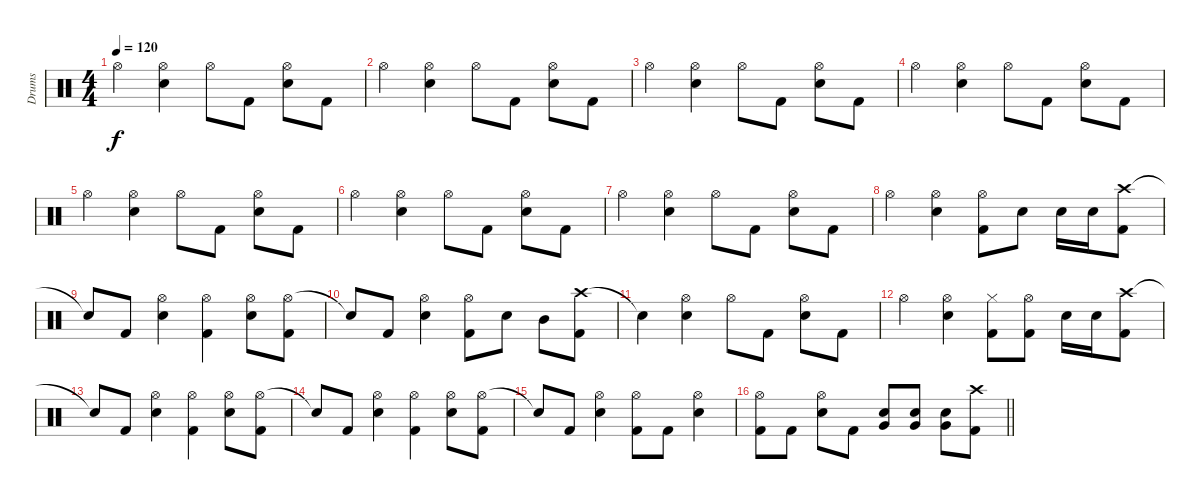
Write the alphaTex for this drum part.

\track ("Drums" "Drums") {instrument percussion}
\staff {score}
\articulation defaults
\ts (4 4)
\tempo 120
\clef neutral
\ks c "Hi-Hat (open)".4{dy f}
("Hi-Hat (open)" "Snare (hit) 2").4 "Hi-Hat (open)".8 "Kick (hit) 2".8 ("Hi-Hat (open)" "Snare (hit) 2").8 "Kick (hit) 2".8 |
"Hi-Hat (open)".4 ("Hi-Hat (open)" "Snare (hit) 2").4 "Hi-Hat (open)".8 "Kick (hit) 2".8 ("Hi-Hat (open)" "Snare (hit) 2").8 "Kick (hit) 2".8 |
"Hi-Hat (open)".4 ("Hi-Hat (open)" "Snare (hit) 2").4 "Hi-Hat (open)".8 "Kick (hit) 2".8 ("Hi-Hat (open)" "Snare (hit) 2").8 "Kick (hit) 2".8 |
"Hi-Hat (open)".4 ("Hi-Hat (open)" "Snare (hit) 2").4 "Hi-Hat (open)".8 "Kick (hit) 2".8 ("Hi-Hat (open)" "Snare (hit) 2").8 "Kick (hit) 2".8 |
"Hi-Hat (open)".4 ("Hi-Hat (open)" "Snare (hit) 2").4 "Hi-Hat (open)".8 "Kick (hit) 2".8 ("Hi-Hat (open)" "Snare (hit) 2").8 "Kick (hit) 2".8 |
"Hi-Hat (open)".4 ("Hi-Hat (open)" "Snare (hit) 2").4 "Hi-Hat (open)".8 "Kick (hit) 2".8 ("Hi-Hat (open)" "Snare (hit) 2").8 "Kick (hit) 2".8 |
"Hi-Hat (open)".4 ("Hi-Hat (open)" "Snare (hit) 2").4 "Hi-Hat (open)".8 "Kick (hit) 2".8 ("Hi-Hat (open)" "Snare (hit) 2").8 "Kick (hit) 2".8 |
"Hi-Hat (open)".4 ("Hi-Hat (open)" "Snare (hit) 2").4 ("Hi-Hat (open)" "Kick (hit) 2").8 "Snare (hit) 2".8 "Snare (hit) 2".16 "Snare (hit) 2".16 ("Crash high (hit)" "Kick (hit) 2").8 |
"Snare (hit)"{t}.8 "Kick (hit) 2".8 ("Hi-Hat (open)" "Snare (hit) 2").4 ("Hi-Hat (open)" "Kick (hit) 2").4 ("Hi-Hat (open)" "Snare (hit) 2").8 ("Hi-Hat (open)" "Kick (hit) 2").8 |
"Snare (hit)"{t}.8 "Kick (hit) 2".8 ("Hi-Hat (open)" "Snare (hit) 2").4 ("Hi-Hat (open)" "Kick (hit) 2").8 "Snare (hit) 2".8 "Mid Tom (hit)".8 ("Crash high (hit)" "Kick (hit) 2").8 |
"Snare (hit)"{t}.4 ("Hi-Hat (open)" "Snare (hit) 2").4 "Hi-Hat (open)".8 "Kick (hit) 2".8 ("Hi-Hat (open)" "Snare (hit) 2").8 "Kick (hit) 2".8 |
"Hi-Hat (open)".4 ("Hi-Hat (open)" "Snare (hit) 2").4 ("Hi-Hat (closed)" "Kick (hit) 2").8 ("Hi-Hat (open)" "Kick (hit) 2").8 "Snare (hit) 2".16 "Snare (hit) 2".16 ("Crash high (hit)" "Kick (hit) 2").8 |
"Snare (hit)"{t}.8 "Kick (hit) 2".8 ("Hi-Hat (open)" "Snare (hit) 2").4 ("Hi-Hat (open)" "Kick (hit) 2").4 ("Hi-Hat (open)" "Snare (hit) 2").8 ("Hi-Hat (open)" "Kick (hit) 2").8 |
"Snare (hit)"{t}.8 "Kick (hit) 2".8 ("Hi-Hat (open)" "Snare (hit) 2").4 ("Hi-Hat (open)" "Kick (hit) 2").4 ("Hi-Hat (open)" "Snare (hit) 2").8 ("Hi-Hat (open)" "Kick (hit) 2").8 |
"Snare (hit)"{t}.8 "Kick (hit) 2".8 ("Hi-Hat (open)" "Snare (hit) 2").4 ("Hi-Hat (open)" "Kick (hit) 2").8 "Kick (hit) 2".8 ("Hi-Hat (open)" "Snare (hit) 2").4 |
\barLineRight lightlight
("Hi-Hat (open)" "Kick (hit) 2").8 "Kick (hit) 2".8 ("Hi-Hat (open)" "Snare (hit) 2").8 "Kick (hit) 2".8 ("Snare (hit) 2" "Very Low Tom (hit)").8 ("Snare (hit) 2" "Very Low Tom (hit)").8 ("Snare (hit) 2" "Very Low Tom (hit)").8 ("Crash high (hit)" "Kick (hit) 2").8
